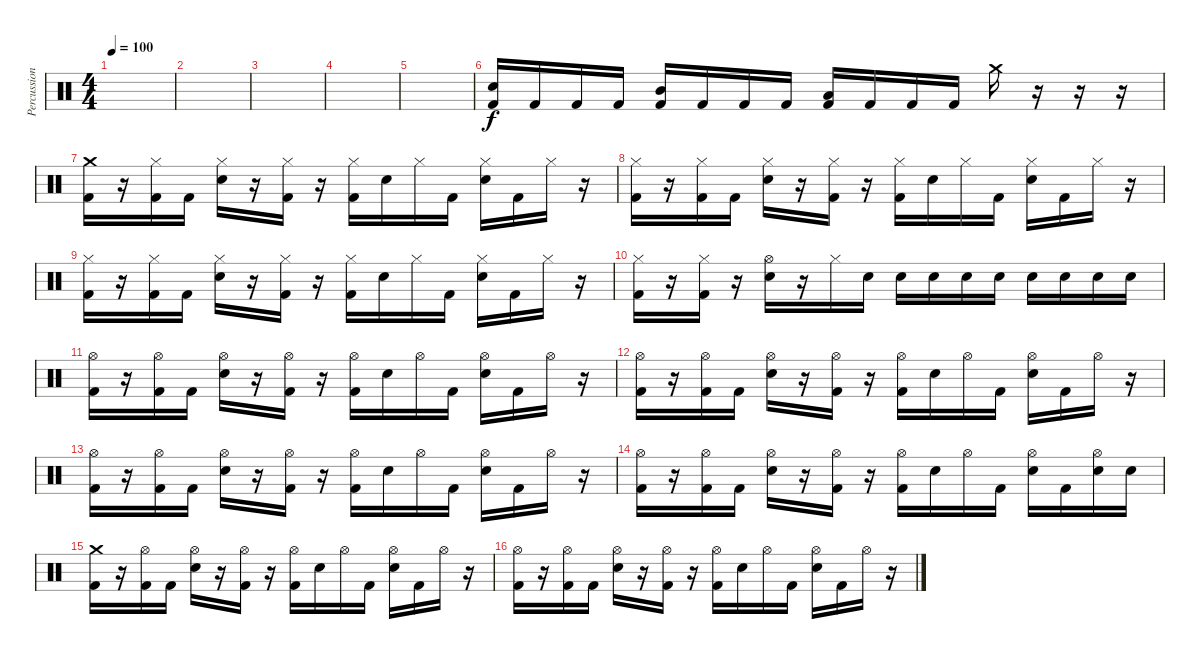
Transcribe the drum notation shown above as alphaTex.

\track ("Percussion" "Percussion") {instrument percussion}
\staff {score}
\articulation defaults
\ts (4 4)
\tempo 100
\clef neutral
\ks c
|
|
|
|
|
("Snare (hit) 2" "Kick (hit) 2").16 "Kick (hit) 2".16 "Kick (hit) 2".16 "Kick (hit) 2".16 ("Mid Tom (hit)" "Kick (hit) 2").16 "Kick (hit) 2".16 "Kick (hit) 2".16 "Kick (hit) 2".16 ("Low Tom (hit)" "Kick (hit) 2").16 "Kick (hit) 2".16 "Kick (hit) 2".16 "Kick (hit) 2".16 "Crash medium (hit)".16 r.16 r.16 r.16 |
("Crash medium (hit)" "Kick (hit) 2").16 r.16 ("Hi-Hat (closed)" "Kick (hit) 2").16 "Kick (hit) 2".16 ("Hi-Hat (closed)" "Snare (hit) 2").16 r.16 ("Hi-Hat (closed)" "Kick (hit) 2").16 r.16 ("Hi-Hat (closed)" "Kick (hit) 2").16 "Snare (hit) 2".16 "Hi-Hat (closed)".16 "Kick (hit) 2".16 ("Hi-Hat (closed)" "Snare (hit) 2").16 "Kick (hit) 2".16 "Hi-Hat (closed)".16 r.16 |
("Hi-Hat (closed)" "Kick (hit) 2").16 r.16 ("Hi-Hat (closed)" "Kick (hit) 2").16 "Kick (hit) 2".16 ("Hi-Hat (closed)" "Snare (hit) 2").16 r.16 ("Hi-Hat (closed)" "Kick (hit) 2").16 r.16 ("Hi-Hat (closed)" "Kick (hit) 2").16 "Snare (hit) 2".16 "Hi-Hat (closed)".16 "Kick (hit) 2".16 ("Hi-Hat (closed)" "Snare (hit) 2").16 "Kick (hit) 2".16 "Hi-Hat (closed)".16 r.16 |
("Hi-Hat (closed)" "Kick (hit) 2").16 r.16 ("Hi-Hat (closed)" "Kick (hit) 2").16 "Kick (hit) 2".16 ("Hi-Hat (closed)" "Snare (hit) 2").16 r.16 ("Hi-Hat (closed)" "Kick (hit) 2").16 r.16 ("Hi-Hat (closed)" "Kick (hit) 2").16 "Snare (hit) 2".16 "Hi-Hat (closed)".16 "Kick (hit) 2".16 ("Hi-Hat (closed)" "Snare (hit) 2").16 "Kick (hit) 2".16 "Hi-Hat (closed)".16 r.16 |
("Hi-Hat (closed)" "Kick (hit) 2").16 r.16 ("Hi-Hat (closed)" "Kick (hit) 2").16 r.16 ("Hi-Hat (open)" "Snare (hit) 2").16 r.16 "Hi-Hat (closed)".16 "Snare (hit) 2".16 "Snare (hit) 2".16 "Snare (hit) 2".16 "Snare (hit) 2".16 "Snare (hit) 2".16 "Snare (hit) 2".16 "Snare (hit) 2".16 "Snare (hit) 2".16 "Snare (hit) 2".16 |
("Hi-Hat (open)" "Kick (hit) 2").16 r.16 ("Hi-Hat (open)" "Kick (hit) 2").16 "Kick (hit) 2".16 ("Hi-Hat (open)" "Snare (hit) 2").16 r.16 ("Hi-Hat (open)" "Kick (hit) 2").16 r.16 ("Hi-Hat (open)" "Kick (hit) 2").16 "Snare (hit) 2".16 "Hi-Hat (open)".16 "Kick (hit) 2".16 ("Hi-Hat (open)" "Snare (hit) 2").16 "Kick (hit) 2".16 "Hi-Hat (open)".16 r.16 |
("Hi-Hat (open)" "Kick (hit) 2").16 r.16 ("Hi-Hat (open)" "Kick (hit) 2").16 "Kick (hit) 2".16 ("Hi-Hat (open)" "Snare (hit) 2").16 r.16 ("Hi-Hat (open)" "Kick (hit) 2").16 r.16 ("Hi-Hat (open)" "Kick (hit) 2").16 "Snare (hit) 2".16 "Hi-Hat (open)".16 "Kick (hit) 2".16 ("Hi-Hat (open)" "Snare (hit) 2").16 "Kick (hit) 2".16 "Hi-Hat (open)".16 r.16 |
("Hi-Hat (open)" "Kick (hit) 2").16 r.16 ("Hi-Hat (open)" "Kick (hit) 2").16 "Kick (hit) 2".16 ("Hi-Hat (open)" "Snare (hit) 2").16 r.16 ("Hi-Hat (open)" "Kick (hit) 2").16 r.16 ("Hi-Hat (open)" "Kick (hit) 2").16 "Snare (hit) 2".16 "Hi-Hat (open)".16 "Kick (hit) 2".16 ("Hi-Hat (open)" "Snare (hit) 2").16 "Kick (hit) 2".16 "Hi-Hat (open)".16 r.16 |
("Hi-Hat (open)" "Kick (hit) 2").16 r.16 ("Hi-Hat (open)" "Kick (hit) 2").16 "Kick (hit) 2".16 ("Hi-Hat (open)" "Snare (hit) 2").16 r.16 ("Hi-Hat (open)" "Kick (hit) 2").16 r.16 ("Hi-Hat (open)" "Kick (hit) 2").16 "Snare (hit) 2".16 "Hi-Hat (open)".16 "Kick (hit) 2".16 ("Hi-Hat (open)" "Snare (hit) 2").16 "Kick (hit) 2".16 ("Hi-Hat (open)" "Snare (hit) 2").16 "Snare (hit) 2".16 |
("Crash medium (hit)" "Kick (hit) 2").16 r.16 ("Hi-Hat (open)" "Kick (hit) 2").16 "Kick (hit) 2".16 ("Hi-Hat (open)" "Snare (hit) 2").16 r.16 ("Hi-Hat (open)" "Kick (hit) 2").16 r.16 ("Hi-Hat (open)" "Kick (hit) 2").16 "Snare (hit) 2".16 "Hi-Hat (open)".16 "Kick (hit) 2".16 ("Hi-Hat (open)" "Snare (hit) 2").16 "Kick (hit) 2".16 "Hi-Hat (open)".16 r.16 |
("Hi-Hat (open)" "Kick (hit) 2").16 r.16 ("Hi-Hat (open)" "Kick (hit) 2").16 "Kick (hit) 2".16 ("Hi-Hat (open)" "Snare (hit) 2").16 r.16 ("Hi-Hat (open)" "Kick (hit) 2").16 r.16 ("Hi-Hat (open)" "Kick (hit) 2").16 "Snare (hit) 2".16 "Hi-Hat (open)".16 "Kick (hit) 2".16 ("Hi-Hat (open)" "Snare (hit) 2").16 "Kick (hit) 2".16 "Hi-Hat (open)".16 r.16
